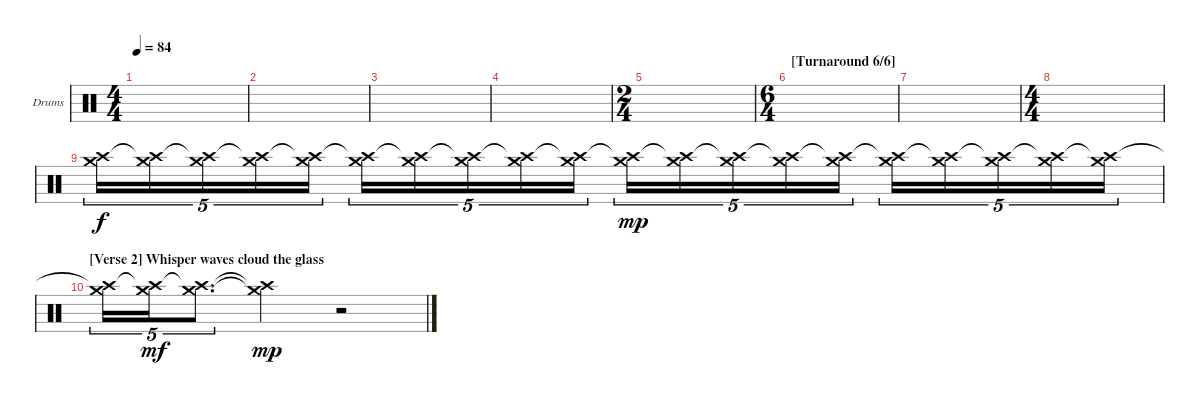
\defaultSystemsLayout 4
\bracketExtendMode groupsimilarinstruments
\firstSystemTrackNameOrientation horizontal
\otherSystemsTrackNameOrientation horizontal
\track ("Drumkit" "Drums") {instrument percussion}
\staff {score}
\articulation defaults
\ts (4 4)
\tempo 84
\clef neutral
\ks aminor
|
|
|
|
\ts (2 4)
|
\ts (6 4)
\section ("" "[Turnaround 6/6]")
|
|
\ts (4 4)
|
("Crash medium (hit)" "Crash high (hit)").16{tu (5 4)} ("Crash medium (hit)" "Crash high (hit)"{t}).16{tu (5 4)} ("Crash medium (hit)" "Crash high (hit)"{t}).16{tu (5 4)} ("Crash medium (hit)" "Crash high (hit)"{t}).16{tu (5 4)} ("Crash medium (hit)" "Crash high (hit)"{t}).16{tu (5 4)} ("Crash medium (hit)" "Crash high (hit)"{t}).16{tu (5 4)} ("Crash medium (hit)" "Crash high (hit)"{t}).16{tu (5 4)} ("Crash medium (hit)" "Crash high (hit)"{t}).16{tu (5 4)} ("Crash medium (hit)" "Crash high (hit)"{t}).16{tu (5 4)} ("Crash medium (hit)" "Crash high (hit)"{t}).16{tu (5 4)} ("Crash medium (hit)" "Crash high (hit)"{t}).16{tu (5 4) dy mp} ("Crash medium (hit)" "Crash high (hit)"{t}).16{tu (5 4)} ("Crash medium (hit)" "Crash high (hit)"{t}).16{tu (5 4)} ("Crash medium (hit)" "Crash high (hit)"{t}).16{tu (5 4)} ("Crash medium (hit)" "Crash high (hit)"{t}).16{tu (5 4)} ("Crash medium (hit)" "Crash high (hit)"{t}).16{tu (5 4)} ("Crash medium (hit)" "Crash high (hit)"{t}).16{tu (5 4)} ("Crash medium (hit)" "Crash high (hit)"{t}).16{tu (5 4)} ("Crash medium (hit)" "Crash high (hit)"{t}).16{tu (5 4)} ("Crash medium (hit)" "Crash high (hit)"{t}).16{tu (5 4)} |
\section ("" "[Verse 2] Whisper waves cloud the glass ")
("Crash medium (hit)" "Crash high (hit)"{t}).16{tu (5 4)} ("Crash medium (hit)" "Crash high (hit)"{t}).16{tu (5 4) dy mf} ("Crash medium (hit)" "Crash high (hit)"{t}).8{d tu (5 4)} ("Crash medium (hit)"{t} "Crash high (hit)"{t}).4{dy mp} r.2
